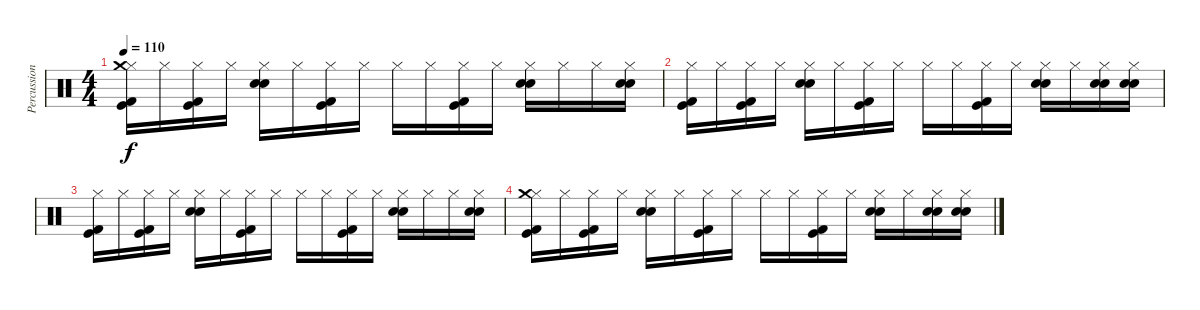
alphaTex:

\track ("Percussion" "Percussion") {instrument percussion}
\staff {score}
\articulation defaults
\ts (4 4)
\tempo 110
\clef neutral
\ks c
("Hi-Hat (closed)" "Crash medium (hit)" "Kick (hit) 2" "Kick (hit)").16{dy f} "Hi-Hat (closed)".16 ("Hi-Hat (closed)" "Kick (hit) 2" "Kick (hit)").16 "Hi-Hat (closed)".16 ("Hi-Hat (closed)" "Electric Snare (hit)" "Snare (hit) 2").16 "Hi-Hat (closed)".16 ("Hi-Hat (closed)" "Kick (hit) 2" "Kick (hit)").16 "Hi-Hat (closed)".16 "Hi-Hat (closed)".16 "Hi-Hat (closed)".16 ("Hi-Hat (closed)" "Kick (hit) 2" "Kick (hit)").16 "Hi-Hat (closed)".16 ("Hi-Hat (closed)" "Electric Snare (hit)" "Snare (hit) 2").16 "Hi-Hat (closed)".16 "Hi-Hat (closed)".16 ("Hi-Hat (closed)" "Electric Snare (hit)" "Snare (hit) 2").16 |
("Hi-Hat (closed)" "Kick (hit) 2" "Kick (hit)").16 "Hi-Hat (closed)".16 ("Hi-Hat (closed)" "Kick (hit) 2" "Kick (hit)").16 "Hi-Hat (closed)".16 ("Hi-Hat (closed)" "Electric Snare (hit)" "Snare (hit) 2").16 "Hi-Hat (closed)".16 ("Hi-Hat (closed)" "Kick (hit) 2" "Kick (hit)").16 "Hi-Hat (closed)".16 "Hi-Hat (closed)".16 "Hi-Hat (closed)".16 ("Hi-Hat (closed)" "Kick (hit) 2" "Kick (hit)").16 "Hi-Hat (closed)".16 ("Hi-Hat (closed)" "Electric Snare (hit)" "Snare (hit) 2").16 "Hi-Hat (closed)".16 ("Hi-Hat (closed)" "Electric Snare (hit)" "Snare (hit) 2").16 ("Hi-Hat (closed)" "Electric Snare (hit)" "Snare (hit) 2").16 |
("Hi-Hat (closed)" "Kick (hit) 2" "Kick (hit)").16 "Hi-Hat (closed)".16 ("Hi-Hat (closed)" "Kick (hit) 2" "Kick (hit)").16 "Hi-Hat (closed)".16 ("Hi-Hat (closed)" "Electric Snare (hit)" "Snare (hit) 2").16 "Hi-Hat (closed)".16 ("Hi-Hat (closed)" "Kick (hit) 2" "Kick (hit)").16 "Hi-Hat (closed)".16 "Hi-Hat (closed)".16 "Hi-Hat (closed)".16 ("Hi-Hat (closed)" "Kick (hit) 2" "Kick (hit)").16 "Hi-Hat (closed)".16 ("Hi-Hat (closed)" "Electric Snare (hit)" "Snare (hit) 2").16 "Hi-Hat (closed)".16 "Hi-Hat (closed)".16 ("Hi-Hat (closed)" "Electric Snare (hit)" "Snare (hit) 2").16 |
("Hi-Hat (closed)" "Crash medium (hit)" "Kick (hit) 2" "Kick (hit)").16 "Hi-Hat (closed)".16 ("Hi-Hat (closed)" "Kick (hit) 2" "Kick (hit)").16 "Hi-Hat (closed)".16 ("Hi-Hat (closed)" "Electric Snare (hit)" "Snare (hit) 2").16 "Hi-Hat (closed)".16 ("Hi-Hat (closed)" "Kick (hit) 2" "Kick (hit)").16 "Hi-Hat (closed)".16 "Hi-Hat (closed)".16 "Hi-Hat (closed)".16 ("Hi-Hat (closed)" "Kick (hit) 2" "Kick (hit)").16 "Hi-Hat (closed)".16 ("Hi-Hat (closed)" "Electric Snare (hit)" "Snare (hit) 2").16 "Hi-Hat (closed)".16 ("Hi-Hat (closed)" "Electric Snare (hit)" "Snare (hit) 2").16 ("Hi-Hat (closed)" "Electric Snare (hit)" "Snare (hit) 2").16
